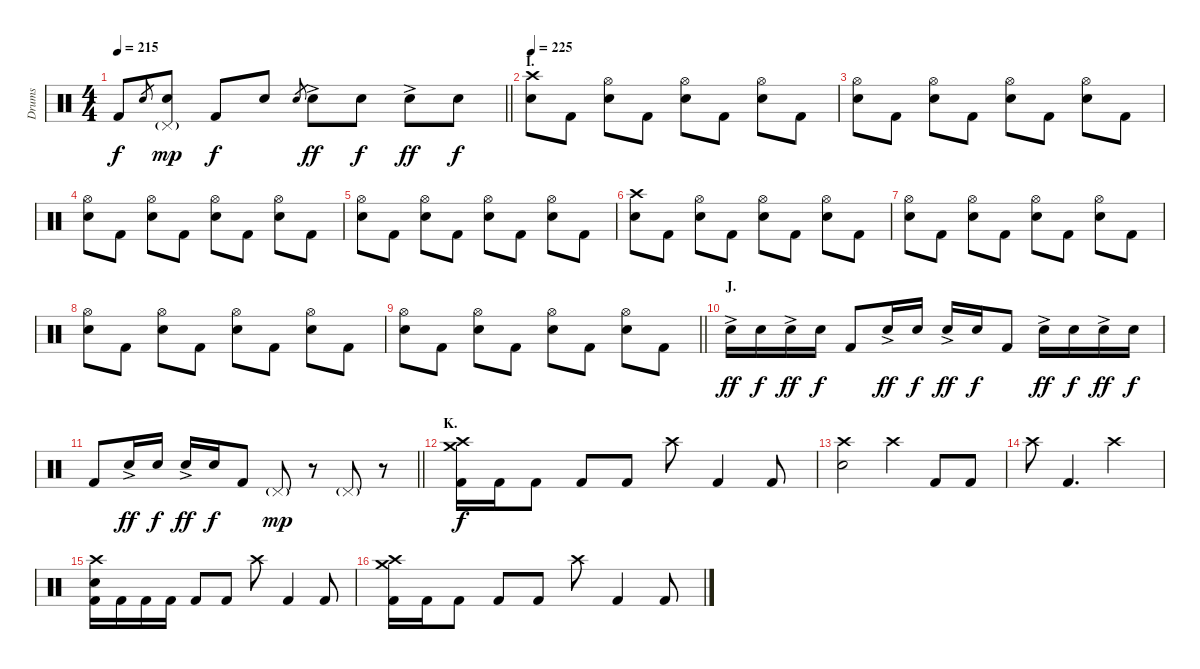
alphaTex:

\track ("Drums" "Drums") {instrument percussion}
\staff {score}
\articulation defaults
\ts (4 4)
\tempo 215
\clef neutral
\barLineRight lightlight
\ks c "Kick (hit) 2".8{dy f} "Electric Snare (hit)".8{gr}
("Pedal Hi-Hat (hit)"{g} "Electric Snare (hit)").8{dy mp} "Kick (hit) 2".8{dy f} "Electric Snare (hit)".8 "Electric Snare (hit)".8{gr} "Electric Snare (hit)"{ac}.8{dy ff} "Electric Snare (hit)".8{dy f} "Electric Snare (hit)"{ac}.8{dy ff} "Electric Snare (hit)".8{dy f} |
\section ("" "I.")
\tempo 225
("Crash high (hit)" "Electric Snare (hit)").8 "Kick (hit) 2".8 ("Hi-Hat (open)" "Electric Snare (hit)").8 "Kick (hit) 2".8 ("Hi-Hat (open)" "Electric Snare (hit)").8 "Kick (hit) 2".8 ("Hi-Hat (open)" "Electric Snare (hit)").8 "Kick (hit) 2".8 |
("Hi-Hat (open)" "Electric Snare (hit)").8 "Kick (hit) 2".8 ("Hi-Hat (open)" "Electric Snare (hit)").8 "Kick (hit) 2".8 ("Hi-Hat (open)" "Electric Snare (hit)").8 "Kick (hit) 2".8 ("Hi-Hat (open)" "Electric Snare (hit)").8 "Kick (hit) 2".8 |
("Hi-Hat (open)" "Electric Snare (hit)").8 "Kick (hit) 2".8 ("Hi-Hat (open)" "Electric Snare (hit)").8 "Kick (hit) 2".8 ("Hi-Hat (open)" "Electric Snare (hit)").8 "Kick (hit) 2".8 ("Hi-Hat (open)" "Electric Snare (hit)").8 "Kick (hit) 2".8 |
("Hi-Hat (open)" "Electric Snare (hit)").8 "Kick (hit) 2".8 ("Hi-Hat (open)" "Electric Snare (hit)").8 "Kick (hit) 2".8 ("Hi-Hat (open)" "Electric Snare (hit)").8 "Kick (hit) 2".8 ("Hi-Hat (open)" "Electric Snare (hit)").8 "Kick (hit) 2".8 |
("Crash high (hit)" "Electric Snare (hit)").8 "Kick (hit) 2".8 ("Hi-Hat (open)" "Electric Snare (hit)").8 "Kick (hit) 2".8 ("Hi-Hat (open)" "Electric Snare (hit)").8 "Kick (hit) 2".8 ("Hi-Hat (open)" "Electric Snare (hit)").8 "Kick (hit) 2".8 |
("Hi-Hat (open)" "Electric Snare (hit)").8 "Kick (hit) 2".8 ("Hi-Hat (open)" "Electric Snare (hit)").8 "Kick (hit) 2".8 ("Hi-Hat (open)" "Electric Snare (hit)").8 "Kick (hit) 2".8 ("Hi-Hat (open)" "Electric Snare (hit)").8 "Kick (hit) 2".8 |
("Hi-Hat (open)" "Electric Snare (hit)").8 "Kick (hit) 2".8 ("Hi-Hat (open)" "Electric Snare (hit)").8 "Kick (hit) 2".8 ("Hi-Hat (open)" "Electric Snare (hit)").8 "Kick (hit) 2".8 ("Hi-Hat (open)" "Electric Snare (hit)").8 "Kick (hit) 2".8 |
\barLineRight lightlight
("Hi-Hat (open)" "Electric Snare (hit)").8 "Kick (hit) 2".8 ("Hi-Hat (open)" "Electric Snare (hit)").8 "Kick (hit) 2".8 ("Hi-Hat (open)" "Electric Snare (hit)").8 "Kick (hit) 2".8 ("Hi-Hat (open)" "Electric Snare (hit)").8 "Kick (hit) 2".8 |
\section ("" "J.")
"Electric Snare (hit)"{ac}.16{dy ff} "Electric Snare (hit)".16{dy f} "Electric Snare (hit)"{ac}.16{dy ff} "Electric Snare (hit)".16{dy f} "Kick (hit) 2".8 "Electric Snare (hit)"{ac}.16{dy ff} "Electric Snare (hit)".16{dy f} "Electric Snare (hit)"{ac}.16{dy ff} "Electric Snare (hit)".16{dy f} "Kick (hit) 2".8 "Electric Snare (hit)"{ac}.16{dy ff} "Electric Snare (hit)".16{dy f} "Electric Snare (hit)"{ac}.16{dy ff} "Electric Snare (hit)".16{dy f} |
\barLineRight lightlight "Kick (hit) 2".8 "Electric Snare (hit)"{ac}.16{dy ff} "Electric Snare (hit)".16{dy f} "Electric Snare (hit)"{ac}.16{dy ff} "Electric Snare (hit)".16{dy f} "Kick (hit) 2".8 "Pedal Hi-Hat (hit)"{g}.8{dy mp}
r.8 "Pedal Hi-Hat (hit)"{g}.8 r.8 |
\section ("" "K.")
("Crash medium (hit)" "Crash high (hit)" "Kick (hit) 2").16{dy f} "Kick (hit) 2".16 "Kick (hit) 2".8 "Kick (hit) 2".8 "Kick (hit) 2".8 "Crash high (hit)".8 "Kick (hit) 2".4 "Kick (hit) 2".8 |
("Crash high (hit)" "Electric Snare (hit)").2 "Crash high (hit)".4 "Kick (hit) 2".8 "Kick (hit) 2".8 |
"Crash high (hit)".8 "Kick (hit) 2".4{d} "Crash high (hit)".2 |
("Crash high (hit)" "Electric Snare (hit)" "Kick (hit) 2").16 "Kick (hit) 2".16 "Kick (hit) 2".16 "Kick (hit) 2".16 "Kick (hit) 2".8 "Kick (hit) 2".8 "Crash high (hit)".8 "Kick (hit) 2".4 "Kick (hit) 2".8 |
("Crash medium (hit)" "Crash high (hit)" "Kick (hit) 2").16 "Kick (hit) 2".16 "Kick (hit) 2".8 "Kick (hit) 2".8 "Kick (hit) 2".8 "Crash high (hit)".8 "Kick (hit) 2".4 "Kick (hit) 2".8
